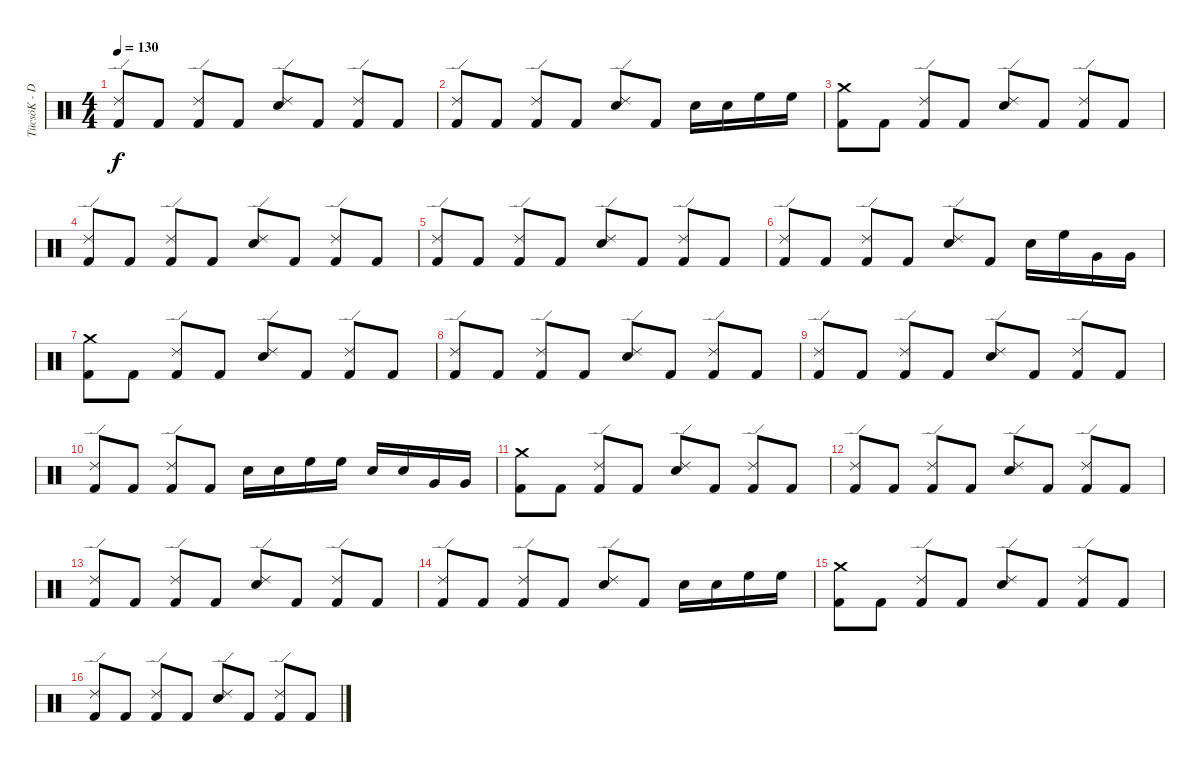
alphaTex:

\track ("TücsöK - Dob" "TücsöK - D") {instrument percussion}
\staff {score}
\articulation defaults
\ts (4 4)
\tempo 130
\clef neutral
\ks c
("Ride (edge) 2" "Kick (hit) 2").8{dy f} "Kick (hit) 2".8 ("Ride (edge) 2" "Kick (hit) 2").8 "Kick (hit) 2".8 ("Ride (edge) 2" "Snare (hit) 2").8 "Kick (hit) 2".8 ("Ride (edge) 2" "Kick (hit) 2").8 "Kick (hit) 2".8 |
("Ride (edge) 2" "Kick (hit) 2").8 "Kick (hit) 2".8 ("Ride (edge) 2" "Kick (hit) 2").8 "Kick (hit) 2".8 ("Ride (edge) 2" "Snare (hit) 2").8 "Kick (hit) 2".8 "Snare (hit) 2".16 "Snare (hit) 2".16 "High Floor Tom (hit)".16 "High Floor Tom (hit)".16 |
("Crash medium (hit)" "Kick (hit) 2").8 "Kick (hit) 2".8 ("Ride (edge) 2" "Kick (hit) 2").8 "Kick (hit) 2".8 ("Ride (edge) 2" "Snare (hit) 2").8 "Kick (hit) 2".8 ("Ride (edge) 2" "Kick (hit) 2").8 "Kick (hit) 2".8 |
("Ride (edge) 2" "Kick (hit) 2").8 "Kick (hit) 2".8 ("Ride (edge) 2" "Kick (hit) 2").8 "Kick (hit) 2".8 ("Ride (edge) 2" "Snare (hit) 2").8 "Kick (hit) 2".8 ("Ride (edge) 2" "Kick (hit) 2").8 "Kick (hit) 2".8 |
("Ride (edge) 2" "Kick (hit) 2").8 "Kick (hit) 2".8 ("Ride (edge) 2" "Kick (hit) 2").8 "Kick (hit) 2".8 ("Ride (edge) 2" "Snare (hit) 2").8 "Kick (hit) 2".8 ("Ride (edge) 2" "Kick (hit) 2").8 "Kick (hit) 2".8 |
("Ride (edge) 2" "Kick (hit) 2").8 "Kick (hit) 2".8 ("Ride (edge) 2" "Kick (hit) 2").8 "Kick (hit) 2".8 ("Ride (edge) 2" "Snare (hit) 2").8 "Kick (hit) 2".8 "Snare (hit) 2".16 "High Floor Tom (hit)".16 "Very Low Tom (hit)".16 "Very Low Tom (hit)".16 |
("Crash medium (hit)" "Kick (hit) 2").8 "Kick (hit) 2".8 ("Ride (edge) 2" "Kick (hit) 2").8 "Kick (hit) 2".8 ("Ride (edge) 2" "Snare (hit) 2").8 "Kick (hit) 2".8 ("Ride (edge) 2" "Kick (hit) 2").8 "Kick (hit) 2".8 |
("Ride (edge) 2" "Kick (hit) 2").8 "Kick (hit) 2".8 ("Ride (edge) 2" "Kick (hit) 2").8 "Kick (hit) 2".8 ("Ride (edge) 2" "Snare (hit) 2").8 "Kick (hit) 2".8 ("Ride (edge) 2" "Kick (hit) 2").8 "Kick (hit) 2".8 |
("Ride (edge) 2" "Kick (hit) 2").8 "Kick (hit) 2".8 ("Ride (edge) 2" "Kick (hit) 2").8 "Kick (hit) 2".8 ("Ride (edge) 2" "Snare (hit) 2").8 "Kick (hit) 2".8 ("Ride (edge) 2" "Kick (hit) 2").8 "Kick (hit) 2".8 |
("Ride (edge) 2" "Kick (hit) 2").8 "Kick (hit) 2".8 ("Ride (edge) 2" "Kick (hit) 2").8 "Kick (hit) 2".8 "Snare (hit) 2".16 "Snare (hit) 2".16 "High Floor Tom (hit)".16 "High Floor Tom (hit)".16 "Snare (hit) 2".16 "Snare (hit) 2".16 "Very Low Tom (hit)".16 "Very Low Tom (hit)".16 |
("Crash medium (hit)" "Kick (hit) 2").8 "Kick (hit) 2".8 ("Ride (edge) 2" "Kick (hit) 2").8 "Kick (hit) 2".8 ("Ride (edge) 2" "Snare (hit) 2").8 "Kick (hit) 2".8 ("Ride (edge) 2" "Kick (hit) 2").8 "Kick (hit) 2".8 |
("Ride (edge) 2" "Kick (hit) 2").8 "Kick (hit) 2".8 ("Ride (edge) 2" "Kick (hit) 2").8 "Kick (hit) 2".8 ("Ride (edge) 2" "Snare (hit) 2").8 "Kick (hit) 2".8 ("Ride (edge) 2" "Kick (hit) 2").8 "Kick (hit) 2".8 |
("Ride (edge) 2" "Kick (hit) 2").8 "Kick (hit) 2".8 ("Ride (edge) 2" "Kick (hit) 2").8 "Kick (hit) 2".8 ("Ride (edge) 2" "Snare (hit) 2").8 "Kick (hit) 2".8 ("Ride (edge) 2" "Kick (hit) 2").8 "Kick (hit) 2".8 |
("Ride (edge) 2" "Kick (hit) 2").8 "Kick (hit) 2".8 ("Ride (edge) 2" "Kick (hit) 2").8 "Kick (hit) 2".8 ("Ride (edge) 2" "Snare (hit) 2").8 "Kick (hit) 2".8 "Snare (hit) 2".16 "Snare (hit) 2".16 "High Floor Tom (hit)".16 "High Floor Tom (hit)".16 |
("Crash medium (hit)" "Kick (hit) 2").8 "Kick (hit) 2".8 ("Ride (edge) 2" "Kick (hit) 2").8 "Kick (hit) 2".8 ("Ride (edge) 2" "Snare (hit) 2").8 "Kick (hit) 2".8 ("Ride (edge) 2" "Kick (hit) 2").8 "Kick (hit) 2".8 |
("Ride (edge) 2" "Kick (hit) 2").8 "Kick (hit) 2".8 ("Ride (edge) 2" "Kick (hit) 2").8 "Kick (hit) 2".8 ("Ride (edge) 2" "Snare (hit) 2").8 "Kick (hit) 2".8 ("Ride (edge) 2" "Kick (hit) 2").8 "Kick (hit) 2".8
